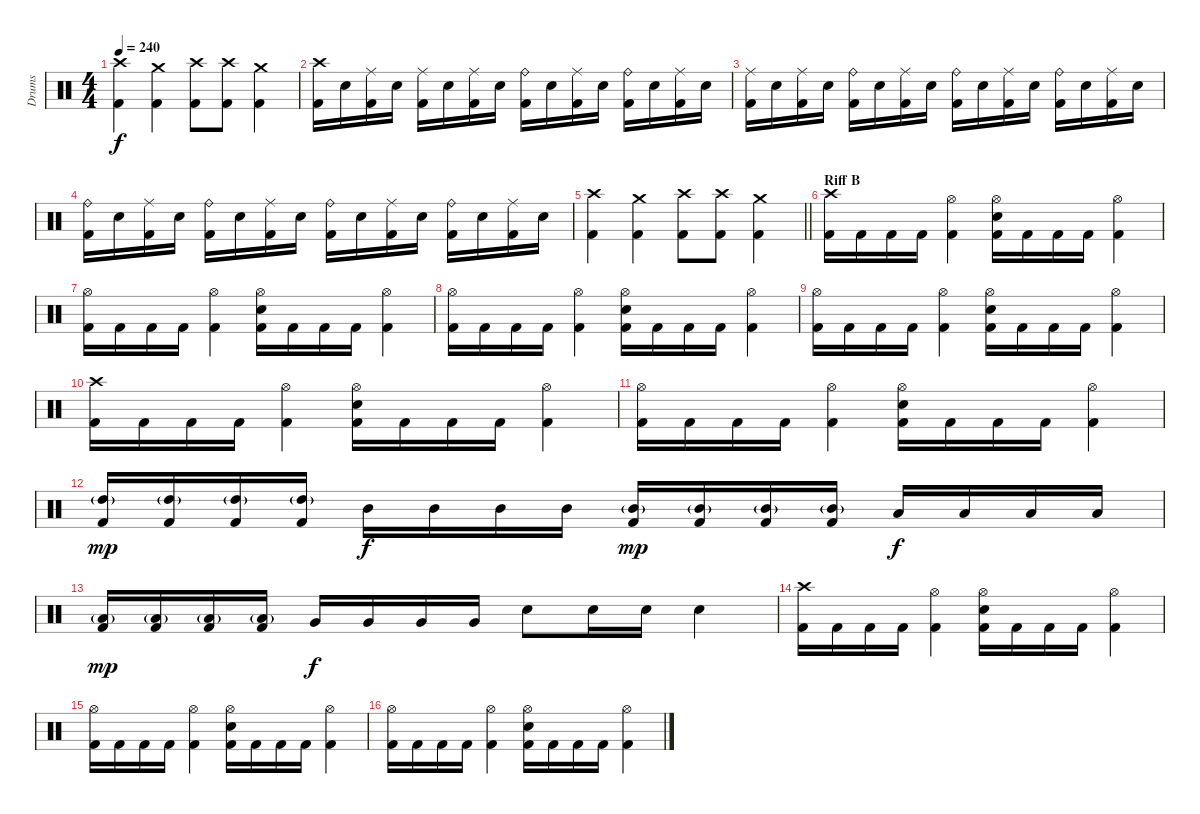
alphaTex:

\track ("Drums" "Drums") {instrument percussion}
\staff {score}
\articulation defaults
\ts (4 4)
\tempo 240
\clef neutral
\ks c
("Crash high (hit)" "Kick (hit) 2").4{dy f} ("Crash medium (hit)" "Kick (hit) 2").4 ("Crash high (hit)" "Kick (hit) 2").8 ("Crash high (hit)" "Kick (hit) 2").8 ("Crash medium (hit)" "Kick (hit) 2").4 |
("Crash high (hit)" "Kick (hit) 2").16 "Electric Snare (hit)".16 ("Ride (middle)" "Kick (hit) 2").16 "Electric Snare (hit)".16 ("Ride (middle)" "Kick (hit) 2").16 "Electric Snare (hit)".16 ("Ride (middle)" "Kick (hit) 2").16 "Electric Snare (hit)".16 ("Ride (bell)" "Kick (hit) 2").16 "Electric Snare (hit)".16 ("Ride (middle)" "Kick (hit) 2").16 "Electric Snare (hit)".16 ("Ride (bell)" "Kick (hit) 2").16 "Electric Snare (hit)".16 ("Ride (middle)" "Kick (hit) 2").16 "Electric Snare (hit)".16 |
("Ride (middle)" "Kick (hit) 2").16 "Electric Snare (hit)".16 ("Ride (middle)" "Kick (hit) 2").16 "Electric Snare (hit)".16 ("Ride (bell)" "Kick (hit) 2").16 "Electric Snare (hit)".16 ("Ride (middle)" "Kick (hit) 2").16 "Electric Snare (hit)".16 ("Ride (bell)" "Kick (hit) 2").16 "Electric Snare (hit)".16 ("Ride (middle)" "Kick (hit) 2").16 "Electric Snare (hit)".16 ("Ride (bell)" "Kick (hit) 2").16 "Electric Snare (hit)".16 ("Ride (middle)" "Kick (hit) 2").16 "Electric Snare (hit)".16 |
("Ride (bell)" "Kick (hit) 2").16 "Electric Snare (hit)".16 ("Ride (middle)" "Kick (hit) 2").16 "Electric Snare (hit)".16 ("Ride (bell)" "Kick (hit) 2").16 "Electric Snare (hit)".16 ("Ride (middle)" "Kick (hit) 2").16 "Electric Snare (hit)".16 ("Ride (bell)" "Kick (hit) 2").16 "Electric Snare (hit)".16 ("Ride (middle)" "Kick (hit) 2").16 "Electric Snare (hit)".16 ("Ride (bell)" "Kick (hit) 2").16 "Electric Snare (hit)".16 ("Ride (middle)" "Kick (hit) 2").16 "Electric Snare (hit)".16 |
\barLineRight lightlight
("Crash high (hit)" "Kick (hit) 2").4 ("Crash medium (hit)" "Kick (hit) 2").4 ("Crash high (hit)" "Kick (hit) 2").8 ("Crash high (hit)" "Kick (hit) 2").8 ("Crash medium (hit)" "Kick (hit) 2").4 |
\section ("" "Riff B")
("Crash high (hit)" "Kick (hit) 2").16 "Kick (hit) 2".16 "Kick (hit) 2".16 "Kick (hit) 2".16 ("Hi-Hat (open)" "Kick (hit) 2").4 ("Hi-Hat (open)" "Electric Snare (hit)" "Kick (hit) 2").16 "Kick (hit) 2".16 "Kick (hit) 2".16 "Kick (hit) 2".16 ("Hi-Hat (open)" "Kick (hit) 2").4 |
("Hi-Hat (open)" "Kick (hit) 2").16 "Kick (hit) 2".16 "Kick (hit) 2".16 "Kick (hit) 2".16 ("Hi-Hat (open)" "Kick (hit) 2").4 ("Hi-Hat (open)" "Electric Snare (hit)" "Kick (hit) 2").16 "Kick (hit) 2".16 "Kick (hit) 2".16 "Kick (hit) 2".16 ("Hi-Hat (open)" "Kick (hit) 2").4 |
("Hi-Hat (open)" "Kick (hit) 2").16 "Kick (hit) 2".16 "Kick (hit) 2".16 "Kick (hit) 2".16 ("Hi-Hat (open)" "Kick (hit) 2").4 ("Hi-Hat (open)" "Electric Snare (hit)" "Kick (hit) 2").16 "Kick (hit) 2".16 "Kick (hit) 2".16 "Kick (hit) 2".16 ("Hi-Hat (open)" "Kick (hit) 2").4 |
("Hi-Hat (open)" "Kick (hit) 2").16 "Kick (hit) 2".16 "Kick (hit) 2".16 "Kick (hit) 2".16 ("Hi-Hat (open)" "Kick (hit) 2").4 ("Hi-Hat (open)" "Electric Snare (hit)" "Kick (hit) 2").16 "Kick (hit) 2".16 "Kick (hit) 2".16 "Kick (hit) 2".16 ("Hi-Hat (open)" "Kick (hit) 2").4 |
("Crash high (hit)" "Kick (hit) 2").16 "Kick (hit) 2".16 "Kick (hit) 2".16 "Kick (hit) 2".16 ("Hi-Hat (open)" "Kick (hit) 2").4 ("Hi-Hat (open)" "Electric Snare (hit)" "Kick (hit) 2").16 "Kick (hit) 2".16 "Kick (hit) 2".16 "Kick (hit) 2".16 ("Hi-Hat (open)" "Kick (hit) 2").4 |
("Hi-Hat (open)" "Kick (hit) 2").16 "Kick (hit) 2".16 "Kick (hit) 2".16 "Kick (hit) 2".16 ("Hi-Hat (open)" "Kick (hit) 2").4 ("Hi-Hat (open)" "Electric Snare (hit)" "Kick (hit) 2").16 "Kick (hit) 2".16 "Kick (hit) 2".16 "Kick (hit) 2".16 ("Hi-Hat (open)" "Kick (hit) 2").4 |
("High Tom (hit)"{g} "Kick (hit) 2").16{dy mp} ("High Tom (hit)"{g} "Kick (hit) 2").16 ("High Tom (hit)"{g} "Kick (hit) 2").16 ("High Tom (hit)"{g} "Kick (hit) 2").16 "Mid Tom (hit)".16{dy f} "Mid Tom (hit)".16 "Mid Tom (hit)".16 "Mid Tom (hit)".16 ("Mid Tom (hit)"{g} "Kick (hit) 2").16{dy mp} ("Mid Tom (hit)"{g} "Kick (hit) 2").16 ("Mid Tom (hit)"{g} "Kick (hit) 2").16 ("Mid Tom (hit)"{g} "Kick (hit) 2").16 "Low Tom (hit)".16{dy f} "Low Tom (hit)".16 "Low Tom (hit)".16 "Low Tom (hit)".16 |
("Low Tom (hit)"{g} "Kick (hit) 2").16{dy mp} ("Low Tom (hit)"{g} "Kick (hit) 2").16 ("Low Tom (hit)"{g} "Kick (hit) 2").16 ("Low Tom (hit)"{g} "Kick (hit) 2").16 "Very Low Tom (hit)".16{dy f} "Very Low Tom (hit)".16 "Very Low Tom (hit)".16 "Very Low Tom (hit)".16 "Electric Snare (hit)".8 "Electric Snare (hit)".16 "Electric Snare (hit)".16 "Electric Snare (hit)".4 |
("Crash high (hit)" "Kick (hit) 2").16 "Kick (hit) 2".16 "Kick (hit) 2".16 "Kick (hit) 2".16 ("Hi-Hat (open)" "Kick (hit) 2").4 ("Hi-Hat (open)" "Electric Snare (hit)" "Kick (hit) 2").16 "Kick (hit) 2".16 "Kick (hit) 2".16 "Kick (hit) 2".16 ("Hi-Hat (open)" "Kick (hit) 2").4 |
("Hi-Hat (open)" "Kick (hit) 2").16 "Kick (hit) 2".16 "Kick (hit) 2".16 "Kick (hit) 2".16 ("Hi-Hat (open)" "Kick (hit) 2").4 ("Hi-Hat (open)" "Electric Snare (hit)" "Kick (hit) 2").16 "Kick (hit) 2".16 "Kick (hit) 2".16 "Kick (hit) 2".16 ("Hi-Hat (open)" "Kick (hit) 2").4 |
("Hi-Hat (open)" "Kick (hit) 2").16 "Kick (hit) 2".16 "Kick (hit) 2".16 "Kick (hit) 2".16 ("Hi-Hat (open)" "Kick (hit) 2").4 ("Hi-Hat (open)" "Electric Snare (hit)" "Kick (hit) 2").16 "Kick (hit) 2".16 "Kick (hit) 2".16 "Kick (hit) 2".16 ("Hi-Hat (open)" "Kick (hit) 2").4
